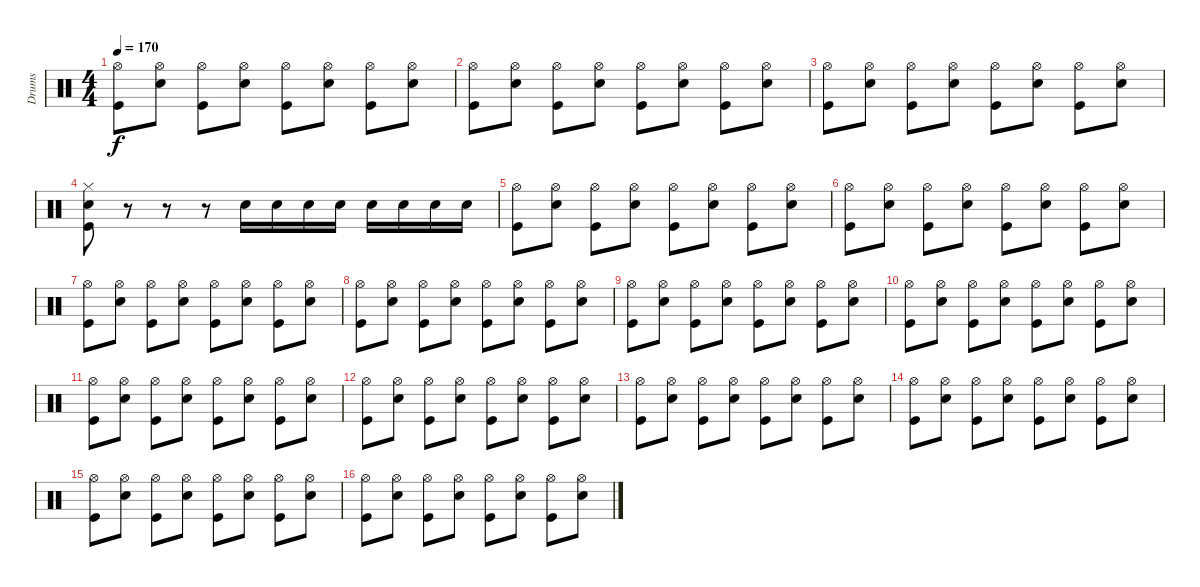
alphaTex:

\track ("Drums" "Drums") {instrument percussion}
\staff {score}
\articulation defaults
\ts (4 4)
\tempo 170
\clef neutral
\ks c
("Hi-Hat (open)" "Kick (hit)").8{dy f} ("Hi-Hat (open)" "Snare (hit) 2").8 ("Hi-Hat (open)" "Kick (hit)").8 ("Hi-Hat (open)" "Snare (hit) 2").8 ("Hi-Hat (open)" "Kick (hit)").8 ("Hi-Hat (open)" "Snare (hit) 2").8 ("Hi-Hat (open)" "Kick (hit)").8 ("Hi-Hat (open)" "Snare (hit) 2").8 |
("Hi-Hat (open)" "Kick (hit)").8 ("Hi-Hat (open)" "Snare (hit) 2").8 ("Hi-Hat (open)" "Kick (hit)").8 ("Hi-Hat (open)" "Snare (hit) 2").8 ("Hi-Hat (open)" "Kick (hit)").8 ("Hi-Hat (open)" "Snare (hit) 2").8 ("Hi-Hat (open)" "Kick (hit)").8 ("Hi-Hat (open)" "Snare (hit) 2").8 |
("Hi-Hat (open)" "Kick (hit)").8 ("Hi-Hat (open)" "Snare (hit) 2").8 ("Hi-Hat (open)" "Kick (hit)").8 ("Hi-Hat (open)" "Snare (hit) 2").8 ("Hi-Hat (open)" "Kick (hit)").8 ("Hi-Hat (open)" "Snare (hit) 2").8 ("Hi-Hat (open)" "Kick (hit)").8 ("Hi-Hat (open)" "Snare (hit) 2").8 |
("Hi-Hat (closed)" "Snare (hit) 2" "Kick (hit)").8 r.8 r.8 r.8 "Snare (hit) 2".16 "Snare (hit) 2".16 "Snare (hit) 2".16 "Snare (hit) 2".16 "Snare (hit) 2".16 "Snare (hit) 2".16 "Snare (hit) 2".16 "Snare (hit) 2".16 |
("Hi-Hat (open)" "Kick (hit)").8 ("Hi-Hat (open)" "Snare (hit) 2").8 ("Hi-Hat (open)" "Kick (hit)").8 ("Hi-Hat (open)" "Snare (hit) 2").8 ("Hi-Hat (open)" "Kick (hit)").8 ("Hi-Hat (open)" "Snare (hit) 2").8 ("Hi-Hat (open)" "Kick (hit)").8 ("Hi-Hat (open)" "Snare (hit) 2").8 |
("Hi-Hat (open)" "Kick (hit)").8 ("Hi-Hat (open)" "Snare (hit) 2").8 ("Hi-Hat (open)" "Kick (hit)").8 ("Hi-Hat (open)" "Snare (hit) 2").8 ("Hi-Hat (open)" "Kick (hit)").8 ("Hi-Hat (open)" "Snare (hit) 2").8 ("Hi-Hat (open)" "Kick (hit)").8 ("Hi-Hat (open)" "Snare (hit) 2").8 |
("Hi-Hat (open)" "Kick (hit)").8 ("Hi-Hat (open)" "Snare (hit) 2").8 ("Hi-Hat (open)" "Kick (hit)").8 ("Hi-Hat (open)" "Snare (hit) 2").8 ("Hi-Hat (open)" "Kick (hit)").8 ("Hi-Hat (open)" "Snare (hit) 2").8 ("Hi-Hat (open)" "Kick (hit)").8 ("Hi-Hat (open)" "Snare (hit) 2").8 |
("Hi-Hat (open)" "Kick (hit)").8 ("Hi-Hat (open)" "Snare (hit) 2").8 ("Hi-Hat (open)" "Kick (hit)").8 ("Hi-Hat (open)" "Snare (hit) 2").8 ("Hi-Hat (open)" "Kick (hit)").8 ("Hi-Hat (open)" "Snare (hit) 2").8 ("Hi-Hat (open)" "Kick (hit)").8 ("Hi-Hat (open)" "Snare (hit) 2").8 |
("Hi-Hat (open)" "Kick (hit)").8 ("Hi-Hat (open)" "Snare (hit) 2").8 ("Hi-Hat (open)" "Kick (hit)").8 ("Hi-Hat (open)" "Snare (hit) 2").8 ("Hi-Hat (open)" "Kick (hit)").8 ("Hi-Hat (open)" "Snare (hit) 2").8 ("Hi-Hat (open)" "Kick (hit)").8 ("Hi-Hat (open)" "Snare (hit) 2").8 |
("Hi-Hat (open)" "Kick (hit)").8 ("Hi-Hat (open)" "Snare (hit) 2").8 ("Hi-Hat (open)" "Kick (hit)").8 ("Hi-Hat (open)" "Snare (hit) 2").8 ("Hi-Hat (open)" "Kick (hit)").8 ("Hi-Hat (open)" "Snare (hit) 2").8 ("Hi-Hat (open)" "Kick (hit)").8 ("Hi-Hat (open)" "Snare (hit) 2").8 |
("Hi-Hat (open)" "Kick (hit)").8 ("Hi-Hat (open)" "Snare (hit) 2").8 ("Hi-Hat (open)" "Kick (hit)").8 ("Hi-Hat (open)" "Snare (hit) 2").8 ("Hi-Hat (open)" "Kick (hit)").8 ("Hi-Hat (open)" "Snare (hit) 2").8 ("Hi-Hat (open)" "Kick (hit)").8 ("Hi-Hat (open)" "Snare (hit) 2").8 |
("Hi-Hat (open)" "Kick (hit)").8 ("Hi-Hat (open)" "Snare (hit) 2").8 ("Hi-Hat (open)" "Kick (hit)").8 ("Hi-Hat (open)" "Snare (hit) 2").8 ("Hi-Hat (open)" "Kick (hit)").8 ("Hi-Hat (open)" "Snare (hit) 2").8 ("Hi-Hat (open)" "Kick (hit)").8 ("Hi-Hat (open)" "Snare (hit) 2").8 |
("Hi-Hat (open)" "Kick (hit)").8 ("Hi-Hat (open)" "Snare (hit) 2").8 ("Hi-Hat (open)" "Kick (hit)").8 ("Hi-Hat (open)" "Snare (hit) 2").8 ("Hi-Hat (open)" "Kick (hit)").8 ("Hi-Hat (open)" "Snare (hit) 2").8 ("Hi-Hat (open)" "Kick (hit)").8 ("Hi-Hat (open)" "Snare (hit) 2").8 |
("Hi-Hat (open)" "Kick (hit)").8 ("Hi-Hat (open)" "Snare (hit) 2").8 ("Hi-Hat (open)" "Kick (hit)").8 ("Hi-Hat (open)" "Snare (hit) 2").8 ("Hi-Hat (open)" "Kick (hit)").8 ("Hi-Hat (open)" "Snare (hit) 2").8 ("Hi-Hat (open)" "Kick (hit)").8 ("Hi-Hat (open)" "Snare (hit) 2").8 |
("Hi-Hat (open)" "Kick (hit)").8 ("Hi-Hat (open)" "Snare (hit) 2").8 ("Hi-Hat (open)" "Kick (hit)").8 ("Hi-Hat (open)" "Snare (hit) 2").8 ("Hi-Hat (open)" "Kick (hit)").8 ("Hi-Hat (open)" "Snare (hit) 2").8 ("Hi-Hat (open)" "Kick (hit)").8 ("Hi-Hat (open)" "Snare (hit) 2").8 |
("Hi-Hat (open)" "Kick (hit)").8 ("Hi-Hat (open)" "Snare (hit) 2").8 ("Hi-Hat (open)" "Kick (hit)").8 ("Hi-Hat (open)" "Snare (hit) 2").8 ("Hi-Hat (open)" "Kick (hit)").8 ("Hi-Hat (open)" "Snare (hit) 2").8 ("Hi-Hat (open)" "Kick (hit)").8 ("Hi-Hat (open)" "Snare (hit) 2").8
